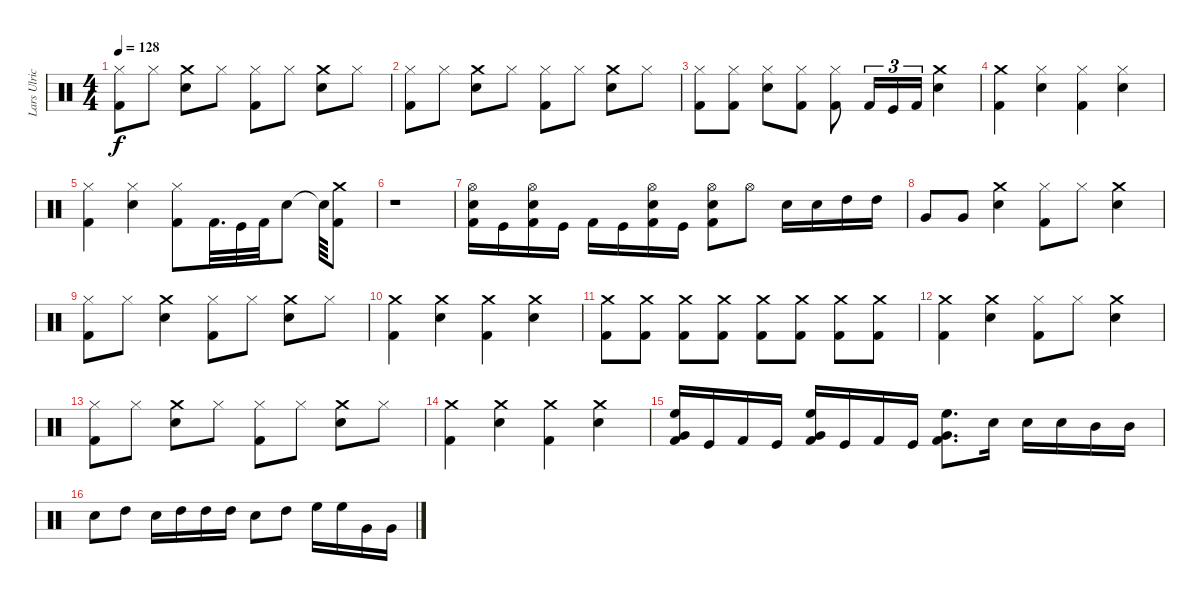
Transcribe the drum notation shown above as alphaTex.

\track ("Lars Ulrich (Drums)" "Lars Ulric") {instrument percussion}
\staff {score}
\articulation defaults
\ts (4 4)
\tempo 128
\clef neutral
\ks c
("Hi-Hat (closed)" "Kick (hit) 2").8{dy f} "Hi-Hat (closed)".8 ("Crash medium (hit)" "Snare (hit) 2").8 "Hi-Hat (closed)".8 ("Hi-Hat (closed)" "Kick (hit) 2").8 "Hi-Hat (closed)".8 ("Crash medium (hit)" "Snare (hit) 2").8 "Hi-Hat (closed)".8 |
("Hi-Hat (closed)" "Kick (hit) 2").8 "Hi-Hat (closed)".8 ("Crash medium (hit)" "Snare (hit) 2").8 "Hi-Hat (closed)".8 ("Hi-Hat (closed)" "Kick (hit) 2").8 "Hi-Hat (closed)".8 ("Crash medium (hit)" "Snare (hit) 2").8 "Hi-Hat (closed)".8 |
("Hi-Hat (closed)" "Kick (hit) 2").8 ("Hi-Hat (closed)" "Kick (hit) 2").8 ("Snare (hit) 2" "Hi-Hat (closed)").8 ("Hi-Hat (closed)" "Kick (hit) 2").8 ("Hi-Hat (closed)" "Kick (hit) 2").8 "Kick (hit) 2".16{tu (3 2)} "Kick (hit)".16{tu (3 2)} "Kick (hit) 2".16{tu (3 2)} ("Crash medium (hit)" "Snare (hit) 2").4 |
("Crash medium (hit)" "Kick (hit) 2").4 ("Snare (hit) 2" "Hi-Hat (closed)").4 ("Hi-Hat (closed)" "Kick (hit) 2").4 ("Snare (hit) 2" "Hi-Hat (closed)").4 |
("Hi-Hat (closed)" "Kick (hit) 2").4 ("Hi-Hat (closed)" "Snare (hit) 2").4 ("Kick (hit) 2" "Hi-Hat (closed)").8 "Kick (hit) 2".32{d} "Kick (hit)".32 "Kick (hit) 2".32 "Snare (hit) 2".8 "Snare (hit)"{t}.64 ("Crash medium (hit)" "Kick (hit) 2").8 |
r.1 |
("Hi-Hat (open)" "Snare (hit) 2" "Kick (hit) 2").16 "Kick (hit)".16 ("Hi-Hat (open)" "Snare (hit) 2" "Kick (hit) 2").16 "Kick (hit)".16 "Kick (hit) 2".16 "Kick (hit)".16 ("Hi-Hat (open)" "Snare (hit) 2" "Kick (hit) 2").16 "Kick (hit)".16 ("Hi-Hat (open)" "Snare (hit) 2" "Kick (hit) 2").8 "Hi-Hat (open)".8 "Snare (hit) 2".16 "Snare (hit) 2".16 "High Tom (hit)".16 "High Tom (hit)".16 |
"Very Low Tom (hit)".8 "Very Low Tom (hit)".8 ("Crash medium (hit)" "Snare (hit) 2").4 ("Kick (hit) 2" "Hi-Hat (closed)").8 "Hi-Hat (closed)".8 ("Crash medium (hit)" "Snare (hit) 2").4 |
("Hi-Hat (closed)" "Kick (hit) 2").8 "Hi-Hat (closed)".8 ("Crash medium (hit)" "Snare (hit) 2").4 ("Hi-Hat (closed)" "Kick (hit) 2").8 "Hi-Hat (closed)".8 ("Crash medium (hit)" "Snare (hit) 2").8 "Hi-Hat (closed)".8 |
("Crash medium (hit)" "Kick (hit) 2").4 ("Crash medium (hit)" "Snare (hit) 2").4 ("Crash medium (hit)" "Kick (hit) 2").4 ("Crash medium (hit)" "Snare (hit) 2").4 |
("Kick (hit) 2" "Crash medium (hit)").8 ("Kick (hit) 2" "Crash medium (hit)").8 ("Kick (hit) 2" "Crash medium (hit)").8 ("Kick (hit) 2" "Crash medium (hit)").8 ("Kick (hit) 2" "Crash medium (hit)").8 ("Kick (hit) 2" "Crash medium (hit)").8 ("Kick (hit) 2" "Crash medium (hit)").8 ("Kick (hit) 2" "Crash medium (hit)").8 |
("Kick (hit) 2" "Crash medium (hit)").4 ("Snare (hit) 2" "Crash medium (hit)").4 ("Hi-Hat (closed)" "Kick (hit) 2").8 "Hi-Hat (closed)".8 ("Snare (hit) 2" "Crash medium (hit)").4 |
("Kick (hit) 2" "Hi-Hat (closed)").8 "Hi-Hat (closed)".8 ("Crash medium (hit)" "Snare (hit) 2").8 "Hi-Hat (closed)".8 ("Kick (hit) 2" "Hi-Hat (closed)").8 "Hi-Hat (closed)".8 ("Crash medium (hit)" "Snare (hit) 2").8 "Hi-Hat (closed)".8 |
("Crash medium (hit)" "Kick (hit) 2").4 ("Crash medium (hit)" "Snare (hit) 2").4 ("Crash medium (hit)" "Kick (hit) 2").4 ("Crash medium (hit)" "Snare (hit) 2").4 |
("Kick (hit) 2" "High Floor Tom (hit)" "Very Low Tom (hit)").16 "Kick (hit)".16 "Kick (hit) 2".16 "Kick (hit)".16 ("Kick (hit) 2" "High Floor Tom (hit)" "Very Low Tom (hit)").16 "Kick (hit)".16 "Kick (hit) 2".16 "Kick (hit)".16 ("High Floor Tom (hit)" "Very Low Tom (hit)" "Kick (hit) 2").8{d} "Snare (hit) 2".16 "Snare (hit) 2".16 "Snare (hit) 2".16 "Mid Tom (hit)".16 "Mid Tom (hit)".16 |
"Snare (hit) 2".8 "High Tom (hit)".8 "Snare (hit) 2".16 "High Tom (hit)".16 "High Tom (hit)".16 "High Tom (hit)".16 "Snare (hit) 2".8 "High Tom (hit)".8 "High Floor Tom (hit)".16 "High Floor Tom (hit)".16 "Very Low Tom (hit)".16 "Very Low Tom (hit)".16
